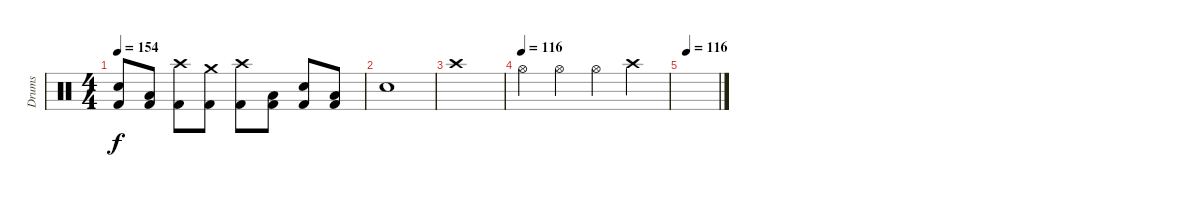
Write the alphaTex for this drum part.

\track ("Drums" "Drums") {instrument percussion}
\staff {score}
\articulation defaults
\ts (4 4)
\tempo 154
\clef neutral
\ks c
("Kick (hit) 2" "Snare (hit) 2").8{dy f} ("Kick (hit) 2" "Low Tom (hit)").8 ("Kick (hit) 2" "Crash high (hit)").8 ("Kick (hit) 2" "Crash medium (hit)").8 ("Kick (hit) 2" "Crash high (hit)").8 ("Kick (hit) 2" "Low Tom (hit)").8 ("Kick (hit) 2" "Snare (hit) 2").8 ("Kick (hit) 2" "Low Tom (hit)").8 |
"Snare (hit) 2"{tr (38 32)}.1 |
"Crash high (hit)".1 |
\tempo (116)
"Hi-Hat (open)".4 "Hi-Hat (open)".4 "Hi-Hat (open)".4 "Crash high (hit)".4 |
\tempo (116 0.125)
